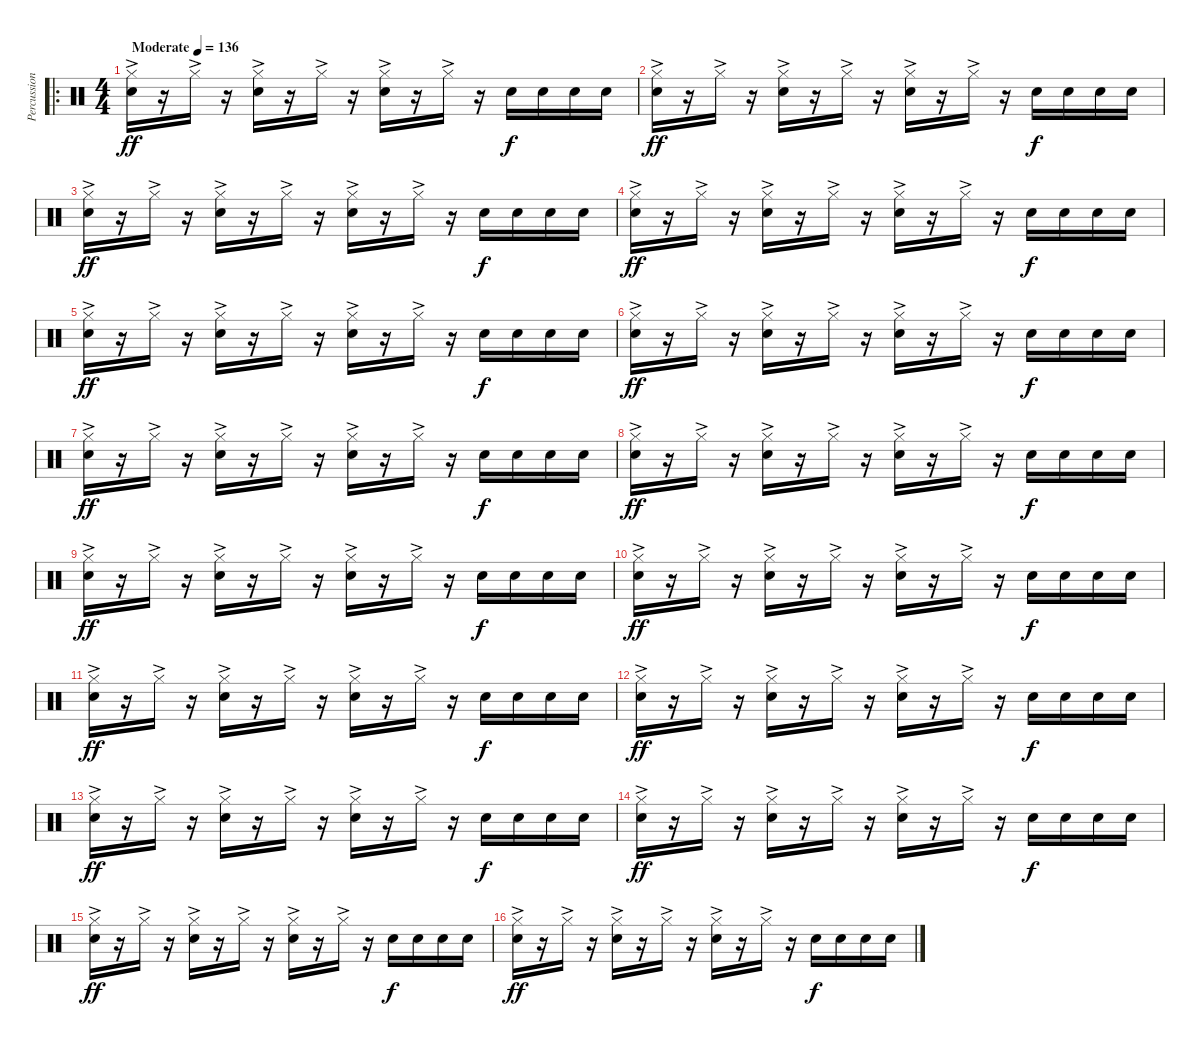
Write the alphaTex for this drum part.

\track ("Percussion" "Percussion") {instrument percussion bank 11}
\staff {score}
\articulation defaults
\ro
\ts (4 4)
\tempo (136 "Moderate")
\clef neutral
\ks c
("Hi-Hat (closed)"{ac} "Snare (hit) 2"{ac}).16{dy ff} r.16 "Hi-Hat (closed)"{ac}.16 r.16 ("Hi-Hat (closed)"{ac} "Snare (hit) 2"{ac}).16 r.16 "Hi-Hat (closed)"{ac}.16 r.16 ("Hi-Hat (closed)"{ac} "Snare (hit) 2"{ac}).16 r.16 "Hi-Hat (closed)"{ac}.16 r.16 "Snare (hit) 2".16{dy f} "Snare (hit) 2".16 "Snare (hit) 2".16 "Snare (hit) 2".16 |
("Hi-Hat (closed)"{ac} "Snare (hit) 2"{ac}).16{dy ff} r.16 "Hi-Hat (closed)"{ac}.16 r.16 ("Hi-Hat (closed)"{ac} "Snare (hit) 2"{ac}).16 r.16 "Hi-Hat (closed)"{ac}.16 r.16 ("Hi-Hat (closed)"{ac} "Snare (hit) 2"{ac}).16 r.16 "Hi-Hat (closed)"{ac}.16 r.16 "Snare (hit) 2".16{dy f} "Snare (hit) 2".16 "Snare (hit) 2".16 "Snare (hit) 2".16 |
("Hi-Hat (closed)"{ac} "Snare (hit) 2"{ac}).16{dy ff} r.16 "Hi-Hat (closed)"{ac}.16 r.16 ("Hi-Hat (closed)"{ac} "Snare (hit) 2"{ac}).16 r.16 "Hi-Hat (closed)"{ac}.16 r.16 ("Hi-Hat (closed)"{ac} "Snare (hit) 2"{ac}).16 r.16 "Hi-Hat (closed)"{ac}.16 r.16 "Snare (hit) 2".16{dy f} "Snare (hit) 2".16 "Snare (hit) 2".16 "Snare (hit) 2".16 |
("Hi-Hat (closed)"{ac} "Snare (hit) 2"{ac}).16{dy ff} r.16 "Hi-Hat (closed)"{ac}.16 r.16 ("Hi-Hat (closed)"{ac} "Snare (hit) 2"{ac}).16 r.16 "Hi-Hat (closed)"{ac}.16 r.16 ("Hi-Hat (closed)"{ac} "Snare (hit) 2"{ac}).16 r.16 "Hi-Hat (closed)"{ac}.16 r.16 "Snare (hit) 2".16{dy f} "Snare (hit) 2".16 "Snare (hit) 2".16 "Snare (hit) 2".16 |
("Hi-Hat (closed)"{ac} "Snare (hit) 2"{ac}).16{dy ff} r.16 "Hi-Hat (closed)"{ac}.16 r.16 ("Hi-Hat (closed)"{ac} "Snare (hit) 2"{ac}).16 r.16 "Hi-Hat (closed)"{ac}.16 r.16 ("Hi-Hat (closed)"{ac} "Snare (hit) 2"{ac}).16 r.16 "Hi-Hat (closed)"{ac}.16 r.16 "Snare (hit) 2".16{dy f} "Snare (hit) 2".16 "Snare (hit) 2".16 "Snare (hit) 2".16 |
("Hi-Hat (closed)"{ac} "Snare (hit) 2"{ac}).16{dy ff} r.16 "Hi-Hat (closed)"{ac}.16 r.16 ("Hi-Hat (closed)"{ac} "Snare (hit) 2"{ac}).16 r.16 "Hi-Hat (closed)"{ac}.16 r.16 ("Hi-Hat (closed)"{ac} "Snare (hit) 2"{ac}).16 r.16 "Hi-Hat (closed)"{ac}.16 r.16 "Snare (hit) 2".16{dy f} "Snare (hit) 2".16 "Snare (hit) 2".16 "Snare (hit) 2".16 |
("Hi-Hat (closed)"{ac} "Snare (hit) 2"{ac}).16{dy ff} r.16 "Hi-Hat (closed)"{ac}.16 r.16 ("Hi-Hat (closed)"{ac} "Snare (hit) 2"{ac}).16 r.16 "Hi-Hat (closed)"{ac}.16 r.16 ("Hi-Hat (closed)"{ac} "Snare (hit) 2"{ac}).16 r.16 "Hi-Hat (closed)"{ac}.16 r.16 "Snare (hit) 2".16{dy f} "Snare (hit) 2".16 "Snare (hit) 2".16 "Snare (hit) 2".16 |
("Hi-Hat (closed)"{ac} "Snare (hit) 2"{ac}).16{dy ff} r.16 "Hi-Hat (closed)"{ac}.16 r.16 ("Hi-Hat (closed)"{ac} "Snare (hit) 2"{ac}).16 r.16 "Hi-Hat (closed)"{ac}.16 r.16 ("Hi-Hat (closed)"{ac} "Snare (hit) 2"{ac}).16 r.16 "Hi-Hat (closed)"{ac}.16 r.16 "Snare (hit) 2".16{dy f} "Snare (hit) 2".16 "Snare (hit) 2".16 "Snare (hit) 2".16 |
("Hi-Hat (closed)"{ac} "Snare (hit) 2"{ac}).16{dy ff} r.16 "Hi-Hat (closed)"{ac}.16 r.16 ("Hi-Hat (closed)"{ac} "Snare (hit) 2"{ac}).16 r.16 "Hi-Hat (closed)"{ac}.16 r.16 ("Hi-Hat (closed)"{ac} "Snare (hit) 2"{ac}).16 r.16 "Hi-Hat (closed)"{ac}.16 r.16 "Snare (hit) 2".16{dy f} "Snare (hit) 2".16 "Snare (hit) 2".16 "Snare (hit) 2".16 |
("Hi-Hat (closed)"{ac} "Snare (hit) 2"{ac}).16{dy ff} r.16 "Hi-Hat (closed)"{ac}.16 r.16 ("Hi-Hat (closed)"{ac} "Snare (hit) 2"{ac}).16 r.16 "Hi-Hat (closed)"{ac}.16 r.16 ("Hi-Hat (closed)"{ac} "Snare (hit) 2"{ac}).16 r.16 "Hi-Hat (closed)"{ac}.16 r.16 "Snare (hit) 2".16{dy f} "Snare (hit) 2".16 "Snare (hit) 2".16 "Snare (hit) 2".16 |
("Hi-Hat (closed)"{ac} "Snare (hit) 2"{ac}).16{dy ff} r.16 "Hi-Hat (closed)"{ac}.16 r.16 ("Hi-Hat (closed)"{ac} "Snare (hit) 2"{ac}).16 r.16 "Hi-Hat (closed)"{ac}.16 r.16 ("Hi-Hat (closed)"{ac} "Snare (hit) 2"{ac}).16 r.16 "Hi-Hat (closed)"{ac}.16 r.16 "Snare (hit) 2".16{dy f} "Snare (hit) 2".16 "Snare (hit) 2".16 "Snare (hit) 2".16 |
("Hi-Hat (closed)"{ac} "Snare (hit) 2"{ac}).16{dy ff} r.16 "Hi-Hat (closed)"{ac}.16 r.16 ("Hi-Hat (closed)"{ac} "Snare (hit) 2"{ac}).16 r.16 "Hi-Hat (closed)"{ac}.16 r.16 ("Hi-Hat (closed)"{ac} "Snare (hit) 2"{ac}).16 r.16 "Hi-Hat (closed)"{ac}.16 r.16 "Snare (hit) 2".16{dy f} "Snare (hit) 2".16 "Snare (hit) 2".16 "Snare (hit) 2".16 |
("Hi-Hat (closed)"{ac} "Snare (hit) 2"{ac}).16{dy ff} r.16 "Hi-Hat (closed)"{ac}.16 r.16 ("Hi-Hat (closed)"{ac} "Snare (hit) 2"{ac}).16 r.16 "Hi-Hat (closed)"{ac}.16 r.16 ("Hi-Hat (closed)"{ac} "Snare (hit) 2"{ac}).16 r.16 "Hi-Hat (closed)"{ac}.16 r.16 "Snare (hit) 2".16{dy f} "Snare (hit) 2".16 "Snare (hit) 2".16 "Snare (hit) 2".16 |
("Hi-Hat (closed)"{ac} "Snare (hit) 2"{ac}).16{dy ff} r.16 "Hi-Hat (closed)"{ac}.16 r.16 ("Hi-Hat (closed)"{ac} "Snare (hit) 2"{ac}).16 r.16 "Hi-Hat (closed)"{ac}.16 r.16 ("Hi-Hat (closed)"{ac} "Snare (hit) 2"{ac}).16 r.16 "Hi-Hat (closed)"{ac}.16 r.16 "Snare (hit) 2".16{dy f} "Snare (hit) 2".16 "Snare (hit) 2".16 "Snare (hit) 2".16 |
("Hi-Hat (closed)"{ac} "Snare (hit) 2"{ac}).16{dy ff} r.16 "Hi-Hat (closed)"{ac}.16 r.16 ("Hi-Hat (closed)"{ac} "Snare (hit) 2"{ac}).16 r.16 "Hi-Hat (closed)"{ac}.16 r.16 ("Hi-Hat (closed)"{ac} "Snare (hit) 2"{ac}).16 r.16 "Hi-Hat (closed)"{ac}.16 r.16 "Snare (hit) 2".16{dy f} "Snare (hit) 2".16 "Snare (hit) 2".16 "Snare (hit) 2".16 |
("Hi-Hat (closed)"{ac} "Snare (hit) 2"{ac}).16{dy ff} r.16 "Hi-Hat (closed)"{ac}.16 r.16 ("Hi-Hat (closed)"{ac} "Snare (hit) 2"{ac}).16 r.16 "Hi-Hat (closed)"{ac}.16 r.16 ("Hi-Hat (closed)"{ac} "Snare (hit) 2"{ac}).16 r.16 "Hi-Hat (closed)"{ac}.16 r.16 "Snare (hit) 2".16{dy f} "Snare (hit) 2".16 "Snare (hit) 2".16 "Snare (hit) 2".16
